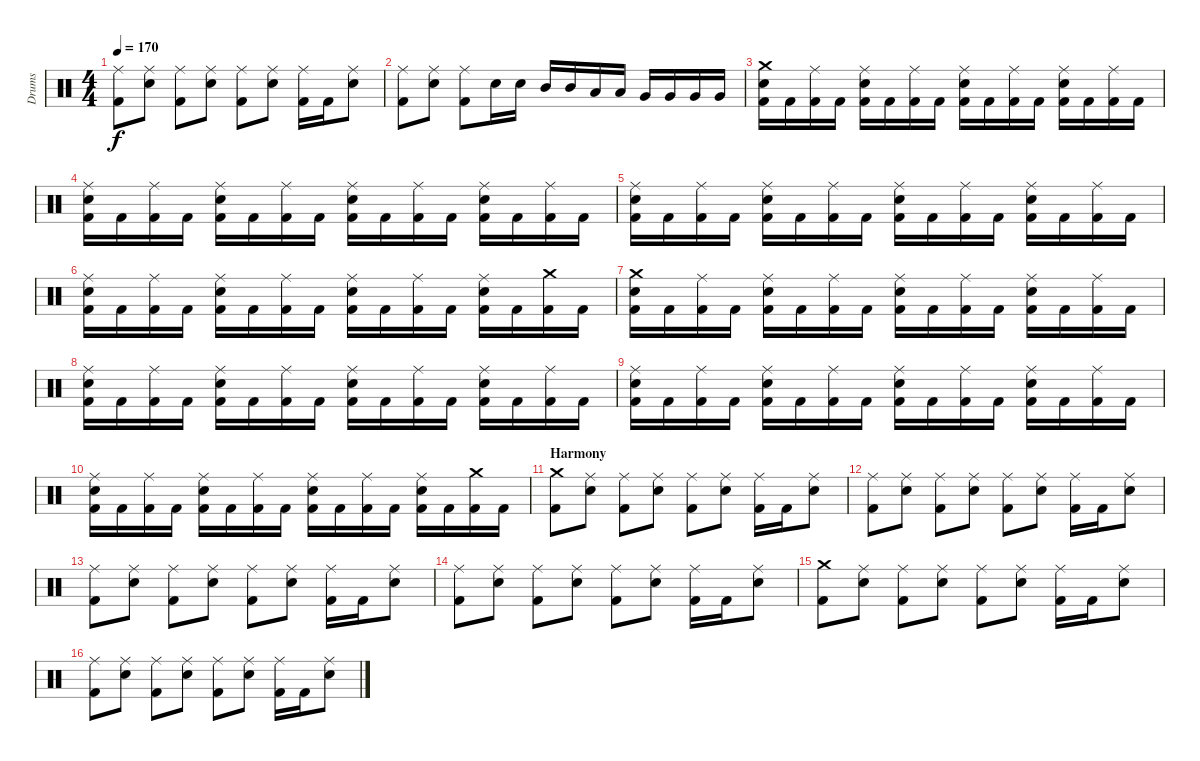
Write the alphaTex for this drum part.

\track ("Drums" "Drums") {instrument percussion}
\staff {score}
\articulation defaults
\ts (4 4)
\tempo 170
\clef neutral
\ks c
("Ride (middle)" "Kick (hit) 2").8{dy f} ("Ride (middle)" "Electric Snare (hit)").8 ("Ride (middle)" "Kick (hit) 2").8 ("Ride (middle)" "Electric Snare (hit)").8 ("Ride (middle)" "Kick (hit) 2").8 ("Ride (middle)" "Electric Snare (hit)").8 ("Ride (middle)" "Kick (hit) 2").16 "Kick (hit) 2".16 ("Ride (middle)" "Electric Snare (hit)").8 |
("Ride (middle)" "Kick (hit) 2").8 ("Ride (middle)" "Electric Snare (hit)").8 ("Ride (middle)" "Kick (hit) 2").8 "Electric Snare (hit)".16 "Electric Snare (hit)".16 "Mid Tom (hit)".16 "Mid Tom (hit)".16 "Low Tom (hit)".16 "Low Tom (hit)".16 "Very Low Tom (hit)".16 "Very Low Tom (hit)".16 "Very Low Tom (hit)".16 "Very Low Tom (hit)".16 |
("Crash medium (hit)" "Electric Snare (hit)" "Kick (hit) 2").16 "Kick (hit) 2".16 ("Ride (middle)" "Kick (hit) 2").16 "Kick (hit) 2".16 ("Ride (middle)" "Electric Snare (hit)" "Kick (hit) 2").16 "Kick (hit) 2".16 ("Ride (middle)" "Kick (hit) 2").16 "Kick (hit) 2".16 ("Ride (middle)" "Electric Snare (hit)" "Kick (hit) 2").16 "Kick (hit) 2".16 ("Ride (middle)" "Kick (hit) 2").16 "Kick (hit) 2".16 ("Ride (middle)" "Electric Snare (hit)" "Kick (hit) 2").16 "Kick (hit) 2".16 ("Ride (middle)" "Kick (hit) 2").16 "Kick (hit) 2".16 |
("Ride (middle)" "Electric Snare (hit)" "Kick (hit) 2").16 "Kick (hit) 2".16 ("Ride (middle)" "Kick (hit) 2").16 "Kick (hit) 2".16 ("Ride (middle)" "Electric Snare (hit)" "Kick (hit) 2").16 "Kick (hit) 2".16 ("Ride (middle)" "Kick (hit) 2").16 "Kick (hit) 2".16 ("Ride (middle)" "Electric Snare (hit)" "Kick (hit) 2").16 "Kick (hit) 2".16 ("Ride (middle)" "Kick (hit) 2").16 "Kick (hit) 2".16 ("Ride (middle)" "Electric Snare (hit)" "Kick (hit) 2").16 "Kick (hit) 2".16 ("Ride (middle)" "Kick (hit) 2").16 "Kick (hit) 2".16 |
("Ride (middle)" "Electric Snare (hit)" "Kick (hit) 2").16 "Kick (hit) 2".16 ("Ride (middle)" "Kick (hit) 2").16 "Kick (hit) 2".16 ("Ride (middle)" "Electric Snare (hit)" "Kick (hit) 2").16 "Kick (hit) 2".16 ("Ride (middle)" "Kick (hit) 2").16 "Kick (hit) 2".16 ("Ride (middle)" "Electric Snare (hit)" "Kick (hit) 2").16 "Kick (hit) 2".16 ("Ride (middle)" "Kick (hit) 2").16 "Kick (hit) 2".16 ("Ride (middle)" "Electric Snare (hit)" "Kick (hit) 2").16 "Kick (hit) 2".16 ("Ride (middle)" "Kick (hit) 2").16 "Kick (hit) 2".16 |
("Ride (middle)" "Electric Snare (hit)" "Kick (hit) 2").16 "Kick (hit) 2".16 ("Ride (middle)" "Kick (hit) 2").16 "Kick (hit) 2".16 ("Ride (middle)" "Electric Snare (hit)" "Kick (hit) 2").16 "Kick (hit) 2".16 ("Ride (middle)" "Kick (hit) 2").16 "Kick (hit) 2".16 ("Ride (middle)" "Electric Snare (hit)" "Kick (hit) 2").16 "Kick (hit) 2".16 ("Ride (middle)" "Kick (hit) 2").16 "Kick (hit) 2".16 ("Ride (middle)" "Electric Snare (hit)" "Kick (hit) 2").16 "Kick (hit) 2".16 ("Crash medium (hit)" "Kick (hit) 2").16 "Kick (hit) 2".16 |
("Crash medium (hit)" "Electric Snare (hit)" "Kick (hit) 2").16 "Kick (hit) 2".16 ("Ride (middle)" "Kick (hit) 2").16 "Kick (hit) 2".16 ("Ride (middle)" "Electric Snare (hit)" "Kick (hit) 2").16 "Kick (hit) 2".16 ("Ride (middle)" "Kick (hit) 2").16 "Kick (hit) 2".16 ("Ride (middle)" "Electric Snare (hit)" "Kick (hit) 2").16 "Kick (hit) 2".16 ("Ride (middle)" "Kick (hit) 2").16 "Kick (hit) 2".16 ("Ride (middle)" "Electric Snare (hit)" "Kick (hit) 2").16 "Kick (hit) 2".16 ("Ride (middle)" "Kick (hit) 2").16 "Kick (hit) 2".16 |
("Ride (middle)" "Electric Snare (hit)" "Kick (hit) 2").16 "Kick (hit) 2".16 ("Ride (middle)" "Kick (hit) 2").16 "Kick (hit) 2".16 ("Ride (middle)" "Electric Snare (hit)" "Kick (hit) 2").16 "Kick (hit) 2".16 ("Ride (middle)" "Kick (hit) 2").16 "Kick (hit) 2".16 ("Ride (middle)" "Electric Snare (hit)" "Kick (hit) 2").16 "Kick (hit) 2".16 ("Ride (middle)" "Kick (hit) 2").16 "Kick (hit) 2".16 ("Ride (middle)" "Electric Snare (hit)" "Kick (hit) 2").16 "Kick (hit) 2".16 ("Ride (middle)" "Kick (hit) 2").16 "Kick (hit) 2".16 |
("Ride (middle)" "Electric Snare (hit)" "Kick (hit) 2").16 "Kick (hit) 2".16 ("Ride (middle)" "Kick (hit) 2").16 "Kick (hit) 2".16 ("Ride (middle)" "Electric Snare (hit)" "Kick (hit) 2").16 "Kick (hit) 2".16 ("Ride (middle)" "Kick (hit) 2").16 "Kick (hit) 2".16 ("Ride (middle)" "Electric Snare (hit)" "Kick (hit) 2").16 "Kick (hit) 2".16 ("Ride (middle)" "Kick (hit) 2").16 "Kick (hit) 2".16 ("Ride (middle)" "Electric Snare (hit)" "Kick (hit) 2").16 "Kick (hit) 2".16 ("Ride (middle)" "Kick (hit) 2").16 "Kick (hit) 2".16 |
("Ride (middle)" "Electric Snare (hit)" "Kick (hit) 2").16 "Kick (hit) 2".16 ("Ride (middle)" "Kick (hit) 2").16 "Kick (hit) 2".16 ("Ride (middle)" "Electric Snare (hit)" "Kick (hit) 2").16 "Kick (hit) 2".16 ("Ride (middle)" "Kick (hit) 2").16 "Kick (hit) 2".16 ("Ride (middle)" "Electric Snare (hit)" "Kick (hit) 2").16 "Kick (hit) 2".16 ("Ride (middle)" "Kick (hit) 2").16 "Kick (hit) 2".16 ("Ride (middle)" "Electric Snare (hit)" "Kick (hit) 2").16 "Kick (hit) 2".16 ("Crash medium (hit)" "Kick (hit) 2").16 "Kick (hit) 2".16 |
\section ("" "Harmony")
("Crash medium (hit)" "Kick (hit) 2").8 ("Ride (middle)" "Electric Snare (hit)").8 ("Ride (middle)" "Kick (hit) 2").8 ("Ride (middle)" "Electric Snare (hit)").8 ("Ride (middle)" "Kick (hit) 2").8 ("Ride (middle)" "Electric Snare (hit)").8 ("Ride (middle)" "Kick (hit) 2").16 "Kick (hit) 2".16 ("Ride (middle)" "Electric Snare (hit)").8 |
("Ride (middle)" "Kick (hit) 2").8 ("Ride (middle)" "Electric Snare (hit)").8 ("Ride (middle)" "Kick (hit) 2").8 ("Ride (middle)" "Electric Snare (hit)").8 ("Ride (middle)" "Kick (hit) 2").8 ("Ride (middle)" "Electric Snare (hit)").8 ("Ride (middle)" "Kick (hit) 2").16 "Kick (hit) 2".16 ("Ride (middle)" "Electric Snare (hit)").8 |
("Ride (middle)" "Kick (hit) 2").8 ("Ride (middle)" "Electric Snare (hit)").8 ("Ride (middle)" "Kick (hit) 2").8 ("Ride (middle)" "Electric Snare (hit)").8 ("Ride (middle)" "Kick (hit) 2").8 ("Ride (middle)" "Electric Snare (hit)").8 ("Ride (middle)" "Kick (hit) 2").16 "Kick (hit) 2".16 ("Ride (middle)" "Electric Snare (hit)").8 |
("Ride (middle)" "Kick (hit) 2").8 ("Ride (middle)" "Electric Snare (hit)").8 ("Ride (middle)" "Kick (hit) 2").8 ("Ride (middle)" "Electric Snare (hit)").8 ("Ride (middle)" "Kick (hit) 2").8 ("Ride (middle)" "Electric Snare (hit)").8 ("Ride (middle)" "Kick (hit) 2").16 "Kick (hit) 2".16 ("Ride (middle)" "Electric Snare (hit)").8 |
("Crash medium (hit)" "Kick (hit) 2").8 ("Ride (middle)" "Electric Snare (hit)").8 ("Ride (middle)" "Kick (hit) 2").8 ("Ride (middle)" "Electric Snare (hit)").8 ("Ride (middle)" "Kick (hit) 2").8 ("Ride (middle)" "Electric Snare (hit)").8 ("Ride (middle)" "Kick (hit) 2").16 "Kick (hit) 2".16 ("Ride (middle)" "Electric Snare (hit)").8 |
("Ride (middle)" "Kick (hit) 2").8 ("Ride (middle)" "Electric Snare (hit)").8 ("Ride (middle)" "Kick (hit) 2").8 ("Ride (middle)" "Electric Snare (hit)").8 ("Ride (middle)" "Kick (hit) 2").8 ("Ride (middle)" "Electric Snare (hit)").8 ("Ride (middle)" "Kick (hit) 2").16 "Kick (hit) 2".16 ("Ride (middle)" "Electric Snare (hit)").8
